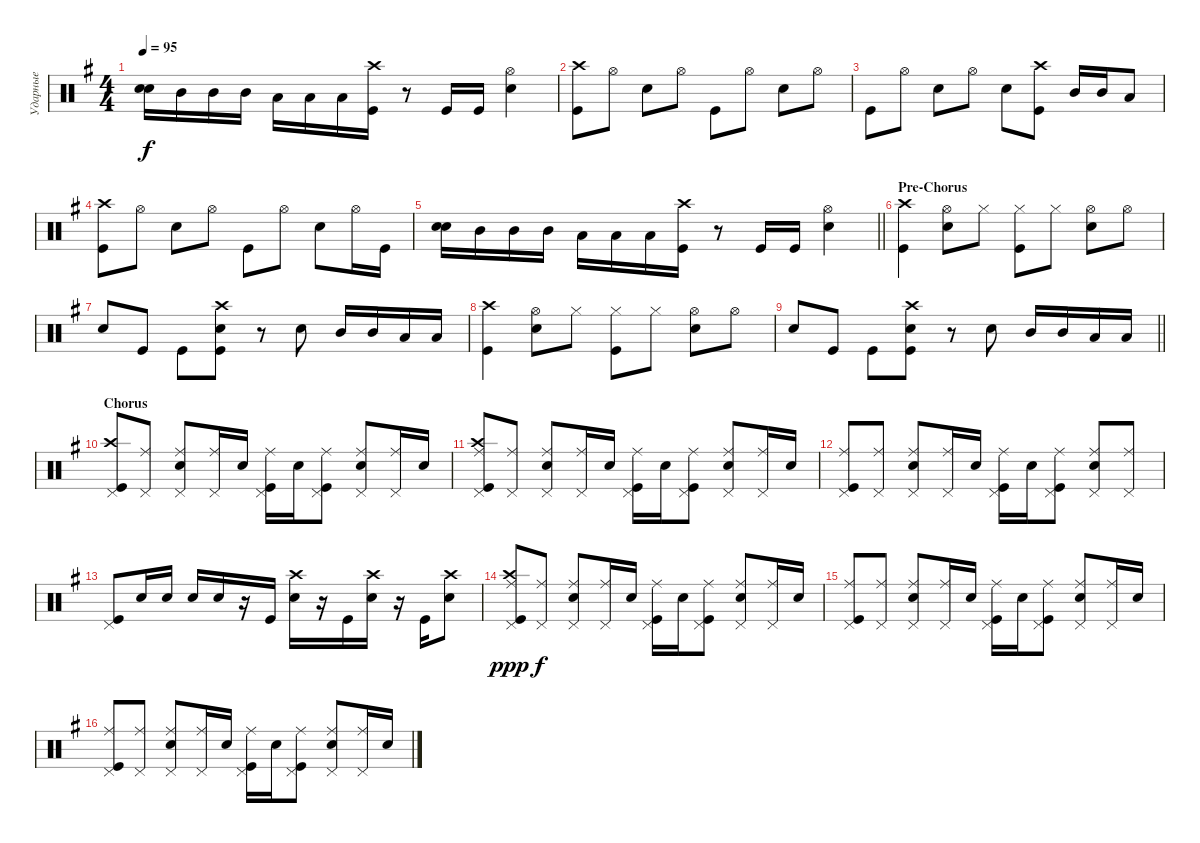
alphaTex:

\track ("Ударные" "Ударные") {instrument percussion}
\staff {score}
\articulation defaults
\ts (4 4)
\tempo 95
\clef neutral
\ks eminor
("Snare (hit) 2" "Snare (hit) 2").16{bd 120 dy f} "Mid Tom (hit)".16 "Mid Tom (hit)".16 "Mid Tom (hit)".16 "Low Tom (hit)".16 "Low Tom (hit)".16 "Low Tom (hit)".16 ("Kick (hit)" "Crash high (hit)").16 r.8 "Kick (hit)".16 "Kick (hit)".16 ("Snare (hit) 2" "Hi-Hat (open)").4 |
("Kick (hit)" "Crash high (hit)").8 "Hi-Hat (open)".8 "Snare (hit) 2".8 "Hi-Hat (open)".8 "Kick (hit)".8 "Hi-Hat (open)".8 "Snare (hit) 2".8 "Hi-Hat (open)".8 |
"Kick (hit)".8 "Hi-Hat (open)".8 "Snare (hit) 2".8 "Hi-Hat (open)".8 "Snare (hit) 2".8 ("Kick (hit)" "Crash high (hit)").8 "Mid Tom (hit)".16 "Mid Tom (hit)".16 "Low Tom (hit)".8 |
("Kick (hit)" "Crash high (hit)").8 "Hi-Hat (open)".8 "Snare (hit) 2".8 "Hi-Hat (open)".8 "Kick (hit)".8 "Hi-Hat (open)".8 "Snare (hit) 2".8 "Hi-Hat (open)".16 "Kick (hit)".16 |
\barLineRight lightlight
("Snare (hit) 2" "Snare (hit) 2").16{bd 120} "Mid Tom (hit)".16 "Mid Tom (hit)".16 "Mid Tom (hit)".16 "Low Tom (hit)".16 "Low Tom (hit)".16 "Low Tom (hit)".16 ("Kick (hit)" "Crash high (hit)").16 r.8 "Kick (hit)".16 "Kick (hit)".16 ("Snare (hit) 2" "Hi-Hat (open)").4 |
\section ("" "Pre-Chorus")
("Kick (hit)" "Crash high (hit)").4 ("Snare (hit) 2" "Hi-Hat (open)").8 "Hi-Hat (closed)".8 ("Kick (hit)" "Hi-Hat (closed)").8 "Hi-Hat (closed)".8 ("Snare (hit) 2" "Hi-Hat (open)").8 "Hi-Hat (open)".8 |
"Snare (hit) 2".8 "Kick (hit)".8 "Kick (hit)".8 ("Snare (hit) 2" "Kick (hit)" "Crash high (hit)").8 r.8 "Snare (hit) 2".8 "Mid Tom (hit)".16 "Mid Tom (hit)".16 "Low Tom (hit)".16 "Low Tom (hit)".16 |
("Kick (hit)" "Crash high (hit)").4 ("Snare (hit) 2" "Hi-Hat (open)").8 "Hi-Hat (closed)".8 ("Kick (hit)" "Hi-Hat (closed)").8 "Hi-Hat (closed)".8 ("Snare (hit) 2" "Hi-Hat (open)").8 "Hi-Hat (open)".8 |
\barLineRight lightlight "Snare (hit) 2".8 "Kick (hit)".8 "Kick (hit)".8
("Snare (hit) 2" "Kick (hit)" "Crash high (hit)").8 r.8 "Snare (hit) 2".8 "Mid Tom (hit)".16 "Mid Tom (hit)".16 "Low Tom (hit)".16 "Low Tom (hit)".16 |
\section ("" "Chorus")
("Kick (hit)" "Crash high (hit)" "Pedal Hi-Hat (hit)").8 ("Pedal Hi-Hat (hit)" "Ride (middle)").8 ("Snare (hit) 2" "Pedal Hi-Hat (hit)" "Ride (middle)").8 ("Pedal Hi-Hat (hit)" "Ride (middle)").16 "Snare (hit) 2".16 ("Kick (hit)" "Pedal Hi-Hat (hit)" "Ride (middle)").16 "Snare (hit) 2".16 ("Kick (hit)" "Pedal Hi-Hat (hit)" "Ride (middle)").8 ("Snare (hit) 2" "Pedal Hi-Hat (hit)" "Ride (middle)").8 ("Pedal Hi-Hat (hit)" "Ride (middle)").16 "Snare (hit) 2".16 |
("Kick (hit)" "Crash high (hit)" "Ride (middle)" "Pedal Hi-Hat (hit)").8 ("Pedal Hi-Hat (hit)" "Ride (middle)").8 ("Snare (hit) 2" "Pedal Hi-Hat (hit)" "Ride (middle)").8 ("Pedal Hi-Hat (hit)" "Ride (middle)").16 "Snare (hit) 2".16 ("Kick (hit)" "Pedal Hi-Hat (hit)" "Ride (middle)").16 "Snare (hit) 2".16 ("Kick (hit)" "Pedal Hi-Hat (hit)" "Ride (middle)").8 ("Snare (hit) 2" "Pedal Hi-Hat (hit)" "Ride (middle)").8 ("Pedal Hi-Hat (hit)" "Ride (middle)").16 "Snare (hit) 2".16 |
("Kick (hit)" "Ride (middle)" "Pedal Hi-Hat (hit)").8 ("Pedal Hi-Hat (hit)" "Ride (middle)").8 ("Snare (hit) 2" "Pedal Hi-Hat (hit)" "Ride (middle)").8 ("Pedal Hi-Hat (hit)" "Ride (middle)").16 "Snare (hit) 2".16 ("Kick (hit)" "Pedal Hi-Hat (hit)" "Ride (middle)").16 "Snare (hit) 2".16 ("Kick (hit)" "Pedal Hi-Hat (hit)" "Ride (middle)").8 ("Snare (hit) 2" "Pedal Hi-Hat (hit)" "Ride (middle)").8 ("Pedal Hi-Hat (hit)" "Ride (middle)").8 |
("Kick (hit)" "Pedal Hi-Hat (hit)").8 "Snare (hit) 2".16 "Snare (hit) 2".16 "Snare (hit) 2".16 "Snare (hit) 2".16 r.16 "Kick (hit)".16 ("Snare (hit) 2" "Crash high (hit)").16 r.16 "Kick (hit)".16 ("Snare (hit) 2" "Crash high (hit)").16 r.16 "Kick (hit)".16 ("Snare (hit) 2" "Crash high (hit)").8 |
("Kick (hit)" "Crash high (hit)" "Ride (middle)" "Pedal Hi-Hat (hit)").8{dy ppp} ("Pedal Hi-Hat (hit)" "Ride (middle)").8{dy f} ("Snare (hit) 2" "Pedal Hi-Hat (hit)" "Ride (middle)").8 ("Pedal Hi-Hat (hit)" "Ride (middle)").16 "Snare (hit) 2".16 ("Kick (hit)" "Pedal Hi-Hat (hit)" "Ride (middle)").16 "Snare (hit) 2".16 ("Kick (hit)" "Pedal Hi-Hat (hit)" "Ride (middle)").8 ("Snare (hit) 2" "Pedal Hi-Hat (hit)" "Ride (middle)").8 ("Pedal Hi-Hat (hit)" "Ride (middle)").16 "Snare (hit) 2".16 |
("Kick (hit)" "Ride (middle)" "Pedal Hi-Hat (hit)").8 ("Pedal Hi-Hat (hit)" "Ride (middle)").8 ("Snare (hit) 2" "Pedal Hi-Hat (hit)" "Ride (middle)").8 ("Pedal Hi-Hat (hit)" "Ride (middle)").16 "Snare (hit) 2".16 ("Kick (hit)" "Pedal Hi-Hat (hit)" "Ride (middle)").16 "Snare (hit) 2".16 ("Kick (hit)" "Pedal Hi-Hat (hit)" "Ride (middle)").8 ("Snare (hit) 2" "Pedal Hi-Hat (hit)" "Ride (middle)").8 ("Pedal Hi-Hat (hit)" "Ride (middle)").16 "Snare (hit) 2".16 |
("Kick (hit)" "Ride (middle)" "Pedal Hi-Hat (hit)").8 ("Pedal Hi-Hat (hit)" "Ride (middle)").8 ("Snare (hit) 2" "Pedal Hi-Hat (hit)" "Ride (middle)").8 ("Pedal Hi-Hat (hit)" "Ride (middle)").16 "Snare (hit) 2".16 ("Kick (hit)" "Pedal Hi-Hat (hit)" "Ride (middle)").16 "Snare (hit) 2".16 ("Kick (hit)" "Pedal Hi-Hat (hit)" "Ride (middle)").8 ("Snare (hit) 2" "Pedal Hi-Hat (hit)" "Ride (middle)").8 ("Pedal Hi-Hat (hit)" "Ride (middle)").16 "Snare (hit) 2".16
